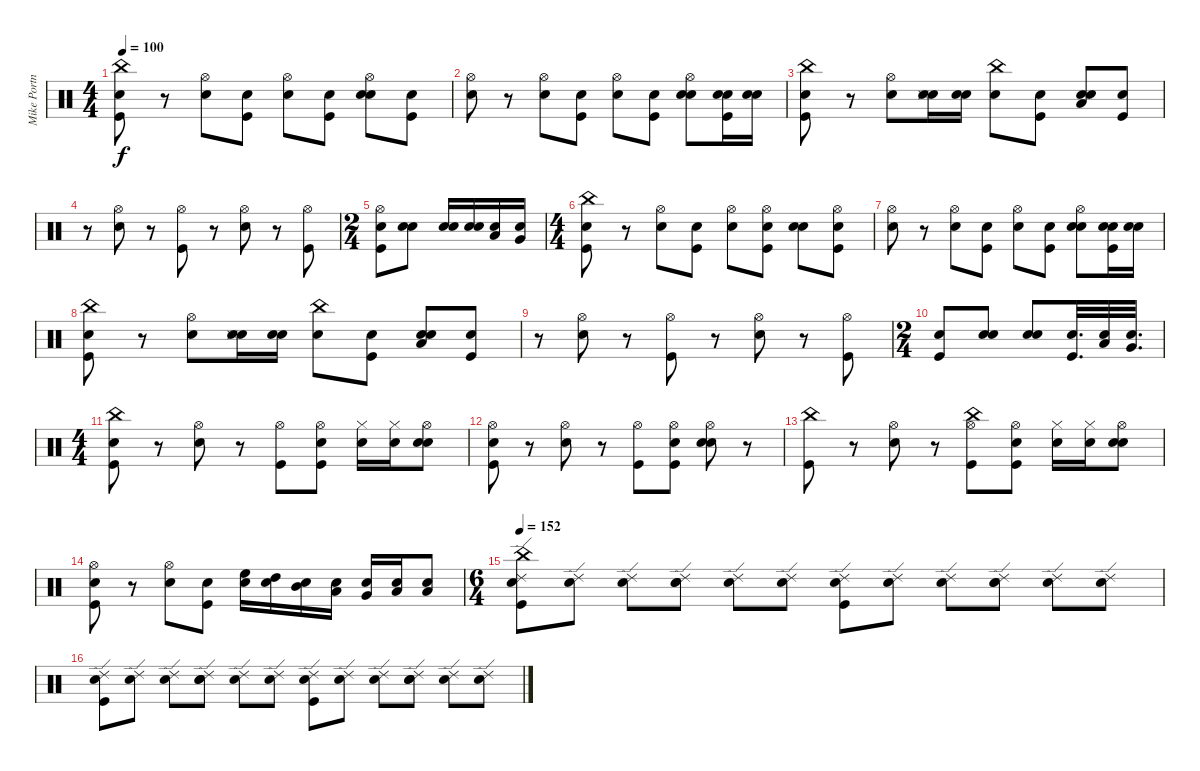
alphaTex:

\track ("Mike Portnoy" "Mike Portn") {instrument percussion}
\staff {score}
\articulation defaults
\ts (4 4)
\tempo 100
\clef neutral
\ks c
("Snare (hit)" "Kick (hit)" "China (hit)").8{dy f} r.8 ("Snare (hit) 2" "Hi-Hat (open)").8 ("Snare (hit)" "Kick (hit)").8 ("Snare (hit)" "Hi-Hat (open)").8 ("Snare (hit)" "Kick (hit)").8 ("Snare (hit)" "Snare (hit) 2" "Hi-Hat (open)").8 ("Snare (hit)" "Kick (hit)").8 |
("Snare (hit)" "Hi-Hat (open)").8 r.8 ("Snare (hit) 2" "Hi-Hat (open)").8 ("Snare (hit)" "Kick (hit)").8 ("Snare (hit)" "Hi-Hat (open)").8 ("Snare (hit)" "Kick (hit)").8 ("Snare (hit)" "Snare (hit) 2" "Hi-Hat (open)").8 ("Snare (hit)" "Kick (hit)" "Snare (hit) 2").16 ("Snare (hit)" "Snare (hit) 2").16 |
("Snare (hit)" "Kick (hit)" "China (hit)").8 r.8 ("Snare (hit) 2" "Hi-Hat (open)").8 ("Snare (hit)" "Metronome (hit)" "Snare (hit) 2").16 ("Snare (hit)" "Snare (hit) 2").16 ("Snare (hit)" "China (hit)").8 ("Snare (hit)" "Kick (hit)").8 ("Snare (hit)" "Snare (hit) 2" "Low Tom (hit)").8 ("Snare (hit)" "Kick (hit)").8 |
r.8 ("Snare (hit) 2" "Hi-Hat (open)").8 r.8 ("Kick (hit)" "Hi-Hat (open)").8 r.8 ("Snare (hit) 2" "Hi-Hat (open)").8 r.8 ("Kick (hit)" "Hi-Hat (open)").8 |
\ts (2 4)
("Snare (hit)" "Kick (hit)" "Hi-Hat (open)").8 ("Snare (hit)" "Snare (hit) 2").8 ("Snare (hit)" "Snare (hit) 2").16 ("Snare (hit)" "Snare (hit) 2").16 ("Snare (hit)" "Low Tom (hit)").16 ("Snare (hit)" "Very Low Tom (hit)").16 |
\ts (4 4)
("Snare (hit)" "Kick (hit)" "China (hit)").8 r.8 ("Snare (hit) 2" "Hi-Hat (open)").8 ("Snare (hit)" "Kick (hit)").8 ("Snare (hit)" "Hi-Hat (open)").8 ("Snare (hit)" "Kick (hit)" "Hi-Hat (open)").8 ("Snare (hit)" "Snare (hit) 2").8 ("Snare (hit)" "Kick (hit)" "Hi-Hat (open)").8 |
("Snare (hit)" "Hi-Hat (open)").8 r.8 ("Snare (hit) 2" "Hi-Hat (open)").8 ("Snare (hit)" "Kick (hit)").8 ("Snare (hit)" "Hi-Hat (open)").8 ("Snare (hit)" "Kick (hit)").8 ("Snare (hit)" "Snare (hit) 2" "Hi-Hat (open)").8 ("Snare (hit)" "Kick (hit)" "Snare (hit) 2").16 ("Snare (hit)" "Snare (hit) 2").16 |
("Snare (hit)" "Kick (hit)" "China (hit)").8 r.8 ("Snare (hit) 2" "Hi-Hat (open)").8 ("Snare (hit)" "Metronome (hit)" "Snare (hit) 2").16 ("Snare (hit)" "Snare (hit) 2").16 ("Snare (hit)" "China (hit)").8 ("Snare (hit)" "Kick (hit)").8 ("Snare (hit)" "Snare (hit) 2" "Low Tom (hit)").8 ("Snare (hit)" "Kick (hit)").8 |
r.8 ("Snare (hit) 2" "Hi-Hat (open)").8 r.8 ("Kick (hit)" "Hi-Hat (open)").8 r.8 ("Snare (hit) 2" "Hi-Hat (open)").8 r.8 ("Kick (hit)" "Hi-Hat (open)").8 |
\ts (2 4)
("Snare (hit)" "Kick (hit)").8 ("Snare (hit)" "Snare (hit) 2").8 ("Snare (hit)" "Snare (hit) 2").8 ("Snare (hit)" "Kick (hit)").32{d} ("Snare (hit)" "Low Tom (hit)").32 ("Snare (hit)" "Very Low Tom (hit)").32{d} |
\ts (4 4)
("Snare (hit)" "Kick (hit)" "China (hit)").8 r.8 ("Snare (hit) 2" "Hi-Hat (open)").8 r.8 ("Kick (hit)" "Hi-Hat (open)").8 ("Snare (hit)" "Kick (hit)" "Hi-Hat (open)").8 ("Snare (hit)" "Hi-Hat (closed)").16 ("Snare (hit)" "Hi-Hat (closed)").16 ("Snare (hit)" "Snare (hit) 2" "Hi-Hat (open)").8 |
("Snare (hit)" "Kick (hit)" "Hi-Hat (open)").8 r.8 ("Snare (hit) 2" "Hi-Hat (open)").8 r.8 ("Kick (hit)" "Hi-Hat (open)").8 ("Snare (hit)" "Kick (hit)" "Hi-Hat (open)").8 ("Snare (hit)" "Snare (hit) 2" "Hi-Hat (open)").8 r.8 |
("Kick (hit)" "China (hit)").8 r.8 ("Snare (hit) 2" "Hi-Hat (open)").8 r.8 ("Kick (hit)" "Hi-Hat (open)" "China (hit)").8 ("Snare (hit)" "Kick (hit)" "Hi-Hat (open)").8 ("Snare (hit)" "Hi-Hat (closed)").16 ("Snare (hit)" "Hi-Hat (closed)").16 ("Snare (hit)" "Snare (hit) 2" "Hi-Hat (open)").8 |
("Snare (hit)" "Kick (hit)" "Hi-Hat (open)").8 r.8 ("Snare (hit) 2" "Hi-Hat (open)").8 ("Snare (hit)" "Kick (hit)").8 ("Snare (hit)" "High Floor Tom (hit)").16 ("Snare (hit)" "High Tom (hit)").16 ("Snare (hit)" "Mid Tom (hit)").16 ("Snare (hit)" "Low Tom (hit)").16 ("Snare (hit)" "Very Low Tom (hit)").16 ("Snare (hit)" "Low Tom (hit)").16 ("Snare (hit)" "Low Floor Tom (hit)").8 |
\ts (6 4)
\tempo 152
("Snare (hit)" "Kick (hit)" "China (hit)" "Ride (edge) 2").8 ("Snare (hit)" "Ride (edge) 2").8 ("Snare (hit)" "Ride (edge) 2").8 ("Snare (hit)" "Snare (hit) 2" "Ride (edge) 2").8 ("Snare (hit)" "Ride (edge) 2").8 ("Snare (hit)" "Ride (edge) 2").8 ("Snare (hit)" "Kick (hit)" "Ride (edge) 2").8 ("Snare (hit)" "Ride (edge) 2").8 ("Snare (hit)" "Ride (edge) 2").8 ("Snare (hit)" "Snare (hit) 2" "Ride (edge) 2").8 ("Snare (hit)" "Ride (edge) 2").8 ("Snare (hit)" "Ride (edge) 2").8 |
("Snare (hit)" "Kick (hit)" "Ride (edge) 2").8 ("Snare (hit)" "Ride (edge) 2").8 ("Snare (hit)" "Ride (edge) 2").8 ("Snare (hit)" "Snare (hit) 2" "Ride (edge) 2").8 ("Snare (hit)" "Ride (edge) 2").8 ("Snare (hit)" "Ride (edge) 2").8 ("Snare (hit)" "Kick (hit)" "Ride (edge) 2").8 ("Snare (hit)" "Ride (edge) 2").8 ("Snare (hit)" "Ride (edge) 2").8 ("Snare (hit)" "Snare (hit) 2" "Ride (edge) 2").8 ("Snare (hit)" "Ride (edge) 2").8 ("Snare (hit)" "Ride (edge) 2").8
